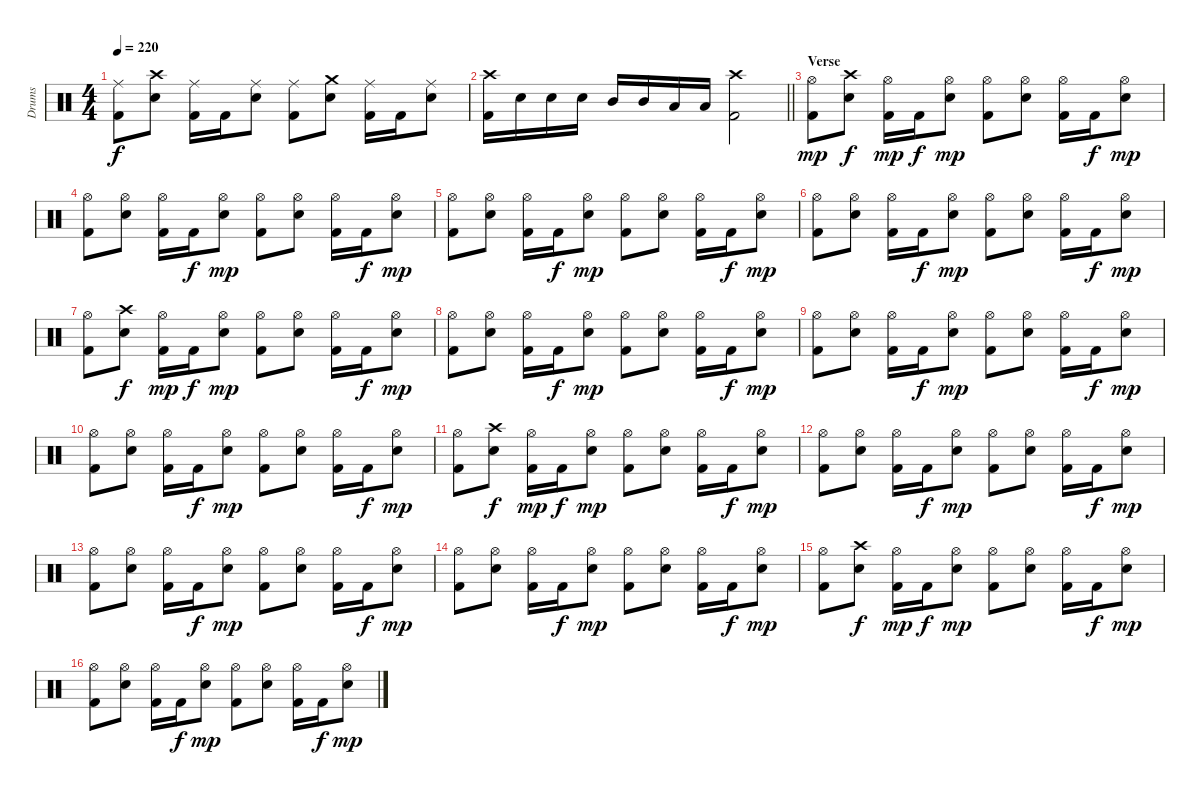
\track ("Drums" "Drums") {instrument percussion}
\staff {score}
\articulation defaults
\ts (4 4)
\tempo 220
\clef neutral
\ks c
("Ride (middle)" "Kick (hit) 2").8{dy f} ("Crash high (hit)" "Snare (hit) 2").8 ("Ride (middle)" "Kick (hit) 2").16 "Kick (hit) 2".16 ("Ride (middle)" "Snare (hit) 2").8 ("Ride (middle)" "Kick (hit) 2").8 ("Crash medium (hit)" "Snare (hit) 2").8 ("Ride (middle)" "Kick (hit) 2").16 "Kick (hit) 2".16 ("Ride (middle)" "Snare (hit) 2").8 |
\barLineRight lightlight
("Crash high (hit)" "Kick (hit) 2").16 "Snare (hit) 2".16 "Snare (hit) 2".16 "Snare (hit) 2".16 "Mid Tom (hit)".16 "Mid Tom (hit)".16 "Low Tom (hit)".16 "Low Tom (hit)".16 ("Crash high (hit)" "Kick (hit) 2").2 |
\section ("" "Verse")
("Hi-Hat (open)" "Kick (hit) 2").8{dy mp} ("Crash high (hit)" "Snare (hit) 2").8{dy f} ("Hi-Hat (open)" "Kick (hit) 2").16{dy mp} "Kick (hit) 2".16{dy f} ("Hi-Hat (open)" "Snare (hit) 2").8{dy mp} ("Hi-Hat (open)" "Kick (hit) 2").8 ("Hi-Hat (open)" "Snare (hit) 2").8 ("Hi-Hat (open)" "Kick (hit) 2").16 "Kick (hit) 2".16{dy f} ("Hi-Hat (open)" "Snare (hit) 2").8{dy mp} |
("Hi-Hat (open)" "Kick (hit) 2").8 ("Hi-Hat (open)" "Snare (hit) 2").8 ("Hi-Hat (open)" "Kick (hit) 2").16 "Kick (hit) 2".16{dy f} ("Hi-Hat (open)" "Snare (hit) 2").8{dy mp} ("Hi-Hat (open)" "Kick (hit) 2").8 ("Hi-Hat (open)" "Snare (hit) 2").8 ("Hi-Hat (open)" "Kick (hit) 2").16 "Kick (hit) 2".16{dy f} ("Hi-Hat (open)" "Snare (hit) 2").8{dy mp} |
("Hi-Hat (open)" "Kick (hit) 2").8 ("Hi-Hat (open)" "Snare (hit) 2").8 ("Hi-Hat (open)" "Kick (hit) 2").16 "Kick (hit) 2".16{dy f} ("Hi-Hat (open)" "Snare (hit) 2").8{dy mp} ("Hi-Hat (open)" "Kick (hit) 2").8 ("Hi-Hat (open)" "Snare (hit) 2").8 ("Hi-Hat (open)" "Kick (hit) 2").16 "Kick (hit) 2".16{dy f} ("Hi-Hat (open)" "Snare (hit) 2").8{dy mp} |
("Hi-Hat (open)" "Kick (hit) 2").8 ("Hi-Hat (open)" "Snare (hit) 2").8 ("Hi-Hat (open)" "Kick (hit) 2").16 "Kick (hit) 2".16{dy f} ("Hi-Hat (open)" "Snare (hit) 2").8{dy mp} ("Hi-Hat (open)" "Kick (hit) 2").8 ("Hi-Hat (open)" "Snare (hit) 2").8 ("Hi-Hat (open)" "Kick (hit) 2").16 "Kick (hit) 2".16{dy f} ("Hi-Hat (open)" "Snare (hit) 2").8{dy mp} |
("Hi-Hat (open)" "Kick (hit) 2").8 ("Crash high (hit)" "Snare (hit) 2").8{dy f} ("Hi-Hat (open)" "Kick (hit) 2").16{dy mp} "Kick (hit) 2".16{dy f} ("Hi-Hat (open)" "Snare (hit) 2").8{dy mp} ("Hi-Hat (open)" "Kick (hit) 2").8 ("Hi-Hat (open)" "Snare (hit) 2").8 ("Hi-Hat (open)" "Kick (hit) 2").16 "Kick (hit) 2".16{dy f} ("Hi-Hat (open)" "Snare (hit) 2").8{dy mp} |
("Hi-Hat (open)" "Kick (hit) 2").8 ("Hi-Hat (open)" "Snare (hit) 2").8 ("Hi-Hat (open)" "Kick (hit) 2").16 "Kick (hit) 2".16{dy f} ("Hi-Hat (open)" "Snare (hit) 2").8{dy mp} ("Hi-Hat (open)" "Kick (hit) 2").8 ("Hi-Hat (open)" "Snare (hit) 2").8 ("Hi-Hat (open)" "Kick (hit) 2").16 "Kick (hit) 2".16{dy f} ("Hi-Hat (open)" "Snare (hit) 2").8{dy mp} |
("Hi-Hat (open)" "Kick (hit) 2").8 ("Hi-Hat (open)" "Snare (hit) 2").8 ("Hi-Hat (open)" "Kick (hit) 2").16 "Kick (hit) 2".16{dy f} ("Hi-Hat (open)" "Snare (hit) 2").8{dy mp} ("Hi-Hat (open)" "Kick (hit) 2").8 ("Hi-Hat (open)" "Snare (hit) 2").8 ("Hi-Hat (open)" "Kick (hit) 2").16 "Kick (hit) 2".16{dy f} ("Hi-Hat (open)" "Snare (hit) 2").8{dy mp} |
("Hi-Hat (open)" "Kick (hit) 2").8 ("Hi-Hat (open)" "Snare (hit) 2").8 ("Hi-Hat (open)" "Kick (hit) 2").16 "Kick (hit) 2".16{dy f} ("Hi-Hat (open)" "Snare (hit) 2").8{dy mp} ("Hi-Hat (open)" "Kick (hit) 2").8 ("Hi-Hat (open)" "Snare (hit) 2").8 ("Hi-Hat (open)" "Kick (hit) 2").16 "Kick (hit) 2".16{dy f} ("Hi-Hat (open)" "Snare (hit) 2").8{dy mp} |
("Hi-Hat (open)" "Kick (hit) 2").8 ("Crash high (hit)" "Snare (hit) 2").8{dy f} ("Hi-Hat (open)" "Kick (hit) 2").16{dy mp} "Kick (hit) 2".16{dy f} ("Hi-Hat (open)" "Snare (hit) 2").8{dy mp} ("Hi-Hat (open)" "Kick (hit) 2").8 ("Hi-Hat (open)" "Snare (hit) 2").8 ("Hi-Hat (open)" "Kick (hit) 2").16 "Kick (hit) 2".16{dy f} ("Hi-Hat (open)" "Snare (hit) 2").8{dy mp} |
("Hi-Hat (open)" "Kick (hit) 2").8 ("Hi-Hat (open)" "Snare (hit) 2").8 ("Hi-Hat (open)" "Kick (hit) 2").16 "Kick (hit) 2".16{dy f} ("Hi-Hat (open)" "Snare (hit) 2").8{dy mp} ("Hi-Hat (open)" "Kick (hit) 2").8 ("Hi-Hat (open)" "Snare (hit) 2").8 ("Hi-Hat (open)" "Kick (hit) 2").16 "Kick (hit) 2".16{dy f} ("Hi-Hat (open)" "Snare (hit) 2").8{dy mp} |
("Hi-Hat (open)" "Kick (hit) 2").8 ("Hi-Hat (open)" "Snare (hit) 2").8 ("Hi-Hat (open)" "Kick (hit) 2").16 "Kick (hit) 2".16{dy f} ("Hi-Hat (open)" "Snare (hit) 2").8{dy mp} ("Hi-Hat (open)" "Kick (hit) 2").8 ("Hi-Hat (open)" "Snare (hit) 2").8 ("Hi-Hat (open)" "Kick (hit) 2").16 "Kick (hit) 2".16{dy f} ("Hi-Hat (open)" "Snare (hit) 2").8{dy mp} |
("Hi-Hat (open)" "Kick (hit) 2").8 ("Hi-Hat (open)" "Snare (hit) 2").8 ("Hi-Hat (open)" "Kick (hit) 2").16 "Kick (hit) 2".16{dy f} ("Hi-Hat (open)" "Snare (hit) 2").8{dy mp} ("Hi-Hat (open)" "Kick (hit) 2").8 ("Hi-Hat (open)" "Snare (hit) 2").8 ("Hi-Hat (open)" "Kick (hit) 2").16 "Kick (hit) 2".16{dy f} ("Hi-Hat (open)" "Snare (hit) 2").8{dy mp} |
("Hi-Hat (open)" "Kick (hit) 2").8 ("Crash high (hit)" "Snare (hit) 2").8{dy f} ("Hi-Hat (open)" "Kick (hit) 2").16{dy mp} "Kick (hit) 2".16{dy f} ("Hi-Hat (open)" "Snare (hit) 2").8{dy mp} ("Hi-Hat (open)" "Kick (hit) 2").8 ("Hi-Hat (open)" "Snare (hit) 2").8 ("Hi-Hat (open)" "Kick (hit) 2").16 "Kick (hit) 2".16{dy f} ("Hi-Hat (open)" "Snare (hit) 2").8{dy mp} |
("Hi-Hat (open)" "Kick (hit) 2").8 ("Hi-Hat (open)" "Snare (hit) 2").8 ("Hi-Hat (open)" "Kick (hit) 2").16 "Kick (hit) 2".16{dy f} ("Hi-Hat (open)" "Snare (hit) 2").8{dy mp} ("Hi-Hat (open)" "Kick (hit) 2").8 ("Hi-Hat (open)" "Snare (hit) 2").8 ("Hi-Hat (open)" "Kick (hit) 2").16 "Kick (hit) 2".16{dy f} ("Hi-Hat (open)" "Snare (hit) 2").8{dy mp}
